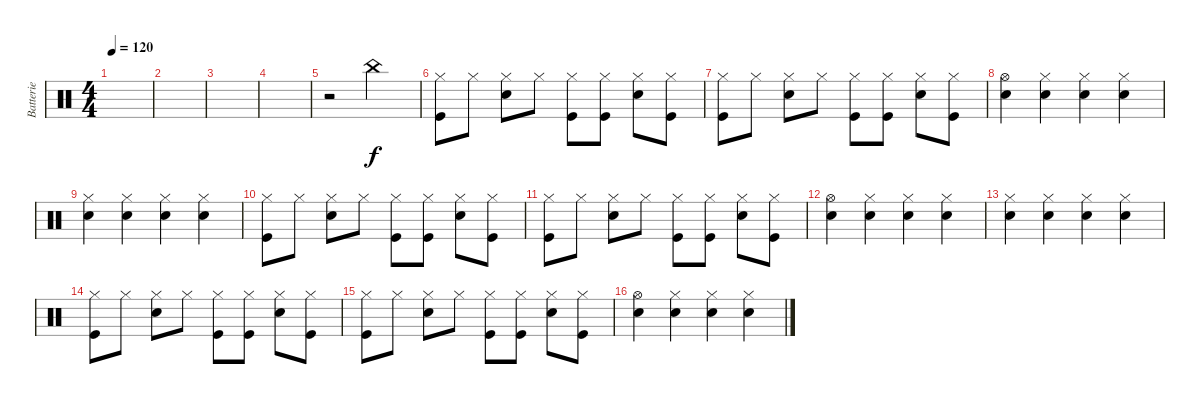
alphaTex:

\track ("Batterie" "Batterie") {instrument percussion}
\staff {score}
\articulation defaults
\ts (4 4)
\tempo 120
\clef neutral
\ks c
|
|
|
|
r.2 "China (hit)".2 |
("Hi-Hat (closed)" "Kick (hit)").8 "Hi-Hat (closed)".8 ("Hi-Hat (closed)" "Snare (hit) 2").8 "Hi-Hat (closed)".8 ("Hi-Hat (closed)" "Kick (hit)").8 ("Hi-Hat (closed)" "Kick (hit)").8 ("Hi-Hat (closed)" "Snare (hit) 2").8 ("Hi-Hat (closed)" "Kick (hit)").8 |
("Hi-Hat (closed)" "Kick (hit)").8 "Hi-Hat (closed)".8 ("Hi-Hat (closed)" "Snare (hit) 2").8 "Hi-Hat (closed)".8 ("Hi-Hat (closed)" "Kick (hit)").8 ("Hi-Hat (closed)" "Kick (hit)").8 ("Hi-Hat (closed)" "Snare (hit) 2").8 ("Hi-Hat (closed)" "Kick (hit)").8 |
("Hi-Hat (open)" "Snare (hit) 2").4 ("Hi-Hat (closed)" "Snare (hit) 2").4 ("Hi-Hat (closed)" "Snare (hit) 2").4 ("Hi-Hat (closed)" "Snare (hit) 2").4 |
("Hi-Hat (closed)" "Snare (hit) 2").4 ("Hi-Hat (closed)" "Snare (hit) 2").4 ("Hi-Hat (closed)" "Snare (hit) 2").4 ("Hi-Hat (closed)" "Snare (hit) 2").4 |
("Hi-Hat (closed)" "Kick (hit)").8 "Hi-Hat (closed)".8 ("Hi-Hat (closed)" "Snare (hit) 2").8 "Hi-Hat (closed)".8 ("Hi-Hat (closed)" "Kick (hit)").8 ("Hi-Hat (closed)" "Kick (hit)").8 ("Hi-Hat (closed)" "Snare (hit) 2").8 ("Hi-Hat (closed)" "Kick (hit)").8 |
("Hi-Hat (closed)" "Kick (hit)").8 "Hi-Hat (closed)".8 ("Hi-Hat (closed)" "Snare (hit) 2").8 "Hi-Hat (closed)".8 ("Hi-Hat (closed)" "Kick (hit)").8 ("Hi-Hat (closed)" "Kick (hit)").8 ("Hi-Hat (closed)" "Snare (hit) 2").8 ("Hi-Hat (closed)" "Kick (hit)").8 |
("Hi-Hat (open)" "Snare (hit) 2").4 ("Hi-Hat (closed)" "Snare (hit) 2").4 ("Hi-Hat (closed)" "Snare (hit) 2").4 ("Hi-Hat (closed)" "Snare (hit) 2").4 |
("Hi-Hat (closed)" "Snare (hit) 2").4 ("Hi-Hat (closed)" "Snare (hit) 2").4 ("Hi-Hat (closed)" "Snare (hit) 2").4 ("Hi-Hat (closed)" "Snare (hit) 2").4 |
("Hi-Hat (closed)" "Kick (hit)").8 "Hi-Hat (closed)".8 ("Hi-Hat (closed)" "Snare (hit) 2").8 "Hi-Hat (closed)".8 ("Hi-Hat (closed)" "Kick (hit)").8 ("Hi-Hat (closed)" "Kick (hit)").8 ("Hi-Hat (closed)" "Snare (hit) 2").8 ("Hi-Hat (closed)" "Kick (hit)").8 |
("Hi-Hat (closed)" "Kick (hit)").8 "Hi-Hat (closed)".8 ("Hi-Hat (closed)" "Snare (hit) 2").8 "Hi-Hat (closed)".8 ("Hi-Hat (closed)" "Kick (hit)").8 ("Hi-Hat (closed)" "Kick (hit)").8 ("Hi-Hat (closed)" "Snare (hit) 2").8 ("Hi-Hat (closed)" "Kick (hit)").8 |
("Hi-Hat (open)" "Snare (hit) 2").4 ("Hi-Hat (closed)" "Snare (hit) 2").4 ("Hi-Hat (closed)" "Snare (hit) 2").4 ("Hi-Hat (closed)" "Snare (hit) 2").4
